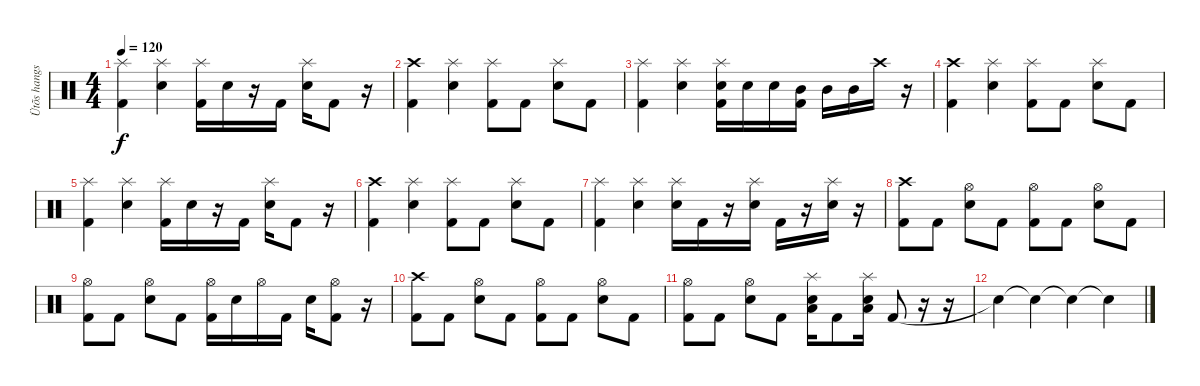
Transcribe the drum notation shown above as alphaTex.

\track ("Ütõs hangszer" "Ütõs hangs") {instrument percussion}
\staff {score}
\articulation defaults
\ts (4 4)
\tempo 120
\clef neutral
\ks c
("Splash (hit)" "Kick (hit) 2").4{dy f} ("Splash (hit)" "Snare (hit) 2").4 ("Splash (hit)" "Kick (hit) 2").16 "Snare (hit) 2".16 r.16 "Kick (hit) 2".16 ("Splash (hit)" "Snare (hit) 2").16 "Kick (hit) 2".8 r.16 |
("Crash high (hit)" "Kick (hit) 2").4 ("Splash (hit)" "Snare (hit) 2").4 ("Splash (hit)" "Kick (hit) 2").8 "Kick (hit) 2".8 ("Splash (hit)" "Snare (hit) 2").8 "Kick (hit) 2".8 |
("Splash (hit)" "Kick (hit) 2").4 ("Splash (hit)" "Snare (hit) 2").4 ("Splash (hit)" "Snare (hit) 2" "Kick (hit) 2").16 "Snare (hit) 2".16 "Snare (hit) 2".16 ("Mid Tom (hit)" "Kick (hit) 2").16 "Mid Tom (hit)".16 "Mid Tom (hit)".16 "Crash high (hit)".16 r.16 |
("Crash high (hit)" "Kick (hit) 2").4 ("Splash (hit)" "Snare (hit) 2").4 ("Splash (hit)" "Kick (hit) 2").8 "Kick (hit) 2".8 ("Splash (hit)" "Snare (hit) 2").8 "Kick (hit) 2".8 |
("Splash (hit)" "Kick (hit) 2").4 ("Splash (hit)" "Snare (hit) 2").4 ("Splash (hit)" "Kick (hit) 2").16 "Snare (hit) 2".16 r.16 "Kick (hit) 2".16 ("Splash (hit)" "Snare (hit) 2").16 "Kick (hit) 2".8 r.16 |
("Crash high (hit)" "Kick (hit) 2").4 ("Splash (hit)" "Snare (hit) 2").4 ("Splash (hit)" "Kick (hit) 2").8 "Kick (hit) 2".8 ("Splash (hit)" "Snare (hit) 2").8 "Kick (hit) 2".8 |
("Splash (hit)" "Kick (hit) 2").4 ("Splash (hit)" "Snare (hit) 2").4 ("Splash (hit)" "Snare (hit) 2").16 "Kick (hit) 2".16 r.16 ("Splash (hit)" "Snare (hit) 2").16 "Kick (hit) 2".16 r.16 ("Splash (hit)" "Snare (hit) 2").16 r.16 |
("Crash high (hit)" "Kick (hit) 2").8 "Kick (hit) 2".8 ("Hi-Hat (open)" "Snare (hit) 2").8 "Kick (hit) 2".8 ("Hi-Hat (open)" "Kick (hit) 2").8 "Kick (hit) 2".8 ("Hi-Hat (open)" "Snare (hit) 2").8 "Kick (hit) 2".8 |
("Hi-Hat (open)" "Kick (hit) 2").8 "Kick (hit) 2".8 ("Hi-Hat (open)" "Snare (hit) 2").8 "Kick (hit) 2".8 ("Hi-Hat (open)" "Kick (hit) 2").16 "Snare (hit) 2".16 "Hi-Hat (open)".16 "Kick (hit) 2".16 "Snare (hit) 2".16 ("Hi-Hat (open)" "Kick (hit) 2").8 r.16 |
("Crash high (hit)" "Kick (hit) 2").8 "Kick (hit) 2".8 ("Hi-Hat (open)" "Snare (hit) 2").8 "Kick (hit) 2".8 ("Hi-Hat (open)" "Kick (hit) 2").8 "Kick (hit) 2".8 ("Hi-Hat (open)" "Snare (hit) 2").8 "Kick (hit) 2".8 |
("Hi-Hat (open)" "Kick (hit) 2").8 "Kick (hit) 2".8 ("Hi-Hat (open)" "Snare (hit) 2").8 "Kick (hit) 2".8 ("Splash (hit)" "Snare (hit) 2" "Low Tom (hit)").16 "Kick (hit) 2".8 ("Splash (hit)" "Snare (hit) 2" "Low Tom (hit)").16 "Kick (hit) 2".8 r.16 r.16 |
"Snare (hit)"{t}.4 "Snare (hit)"{t}.4 "Snare (hit)"{t}.4 "Snare (hit)"{t}.4
